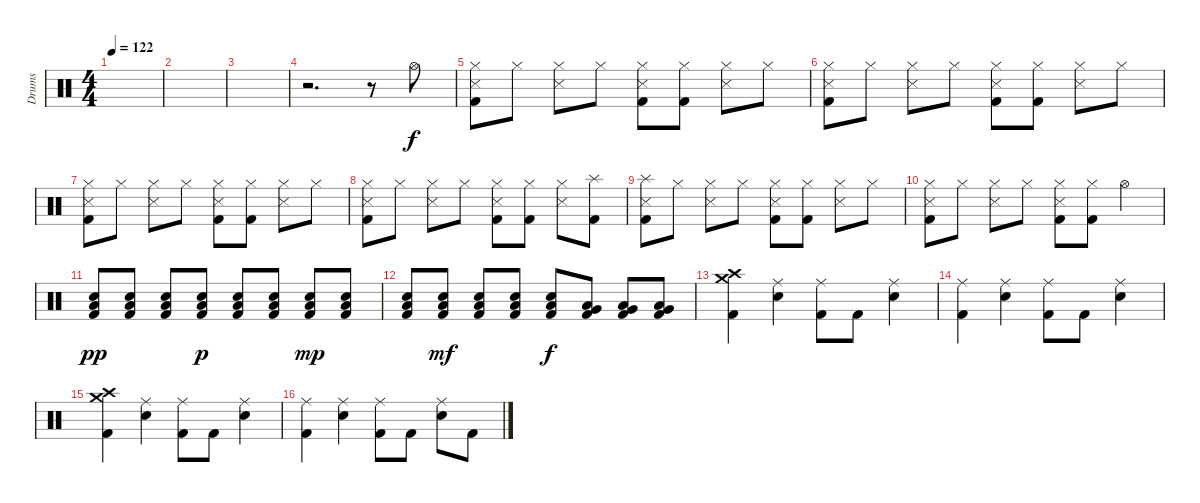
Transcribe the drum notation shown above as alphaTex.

\track ("Drums" "Drums") {instrument percussion}
\staff {score}
\articulation defaults
\ts (4 4)
\tempo 122
\clef neutral
\ks c
|
|
|
r.2{d} r.8 "Hi-Hat (open)".8{dy f volume 14} |
("Hi-Hat (closed)" "Snare (side stick) 3" "Kick (hit) 2").8 "Hi-Hat (closed)".8 ("Hi-Hat (closed)" "Snare (side stick) 3").8 "Hi-Hat (closed)".8 ("Hi-Hat (closed)" "Snare (side stick) 3" "Kick (hit) 2").8 ("Hi-Hat (closed)" "Kick (hit) 2").8 ("Hi-Hat (closed)" "Snare (side stick) 3").8 "Hi-Hat (closed)".8 |
("Hi-Hat (closed)" "Snare (side stick) 3" "Kick (hit) 2").8 "Hi-Hat (closed)".8 ("Hi-Hat (closed)" "Snare (side stick) 3").8 "Hi-Hat (closed)".8 ("Hi-Hat (closed)" "Snare (side stick) 3" "Kick (hit) 2").8 ("Hi-Hat (closed)" "Kick (hit) 2").8 ("Hi-Hat (closed)" "Snare (side stick) 3").8 "Hi-Hat (closed)".8 |
("Hi-Hat (closed)" "Snare (side stick) 3" "Kick (hit) 2").8 "Hi-Hat (closed)".8 ("Hi-Hat (closed)" "Snare (side stick) 3").8 "Hi-Hat (closed)".8 ("Hi-Hat (closed)" "Snare (side stick) 3" "Kick (hit) 2").8 ("Hi-Hat (closed)" "Kick (hit) 2").8 ("Hi-Hat (closed)" "Snare (side stick) 3").8 "Hi-Hat (closed)".8 |
("Hi-Hat (closed)" "Snare (side stick) 3" "Kick (hit) 2").8 "Hi-Hat (closed)".8 ("Hi-Hat (closed)" "Snare (side stick) 3").8 "Hi-Hat (closed)".8 ("Hi-Hat (closed)" "Snare (side stick) 3" "Kick (hit) 2").8 ("Hi-Hat (closed)" "Kick (hit) 2").8 ("Hi-Hat (closed)" "Snare (side stick) 3").8 ("Splash (hit)" "Kick (hit) 2").8 |
("Splash (hit)" "Snare (side stick) 3" "Kick (hit) 2").8 "Hi-Hat (closed)".8 ("Hi-Hat (closed)" "Snare (side stick) 3").8 "Hi-Hat (closed)".8 ("Hi-Hat (closed)" "Snare (side stick) 3" "Kick (hit) 2").8 ("Hi-Hat (closed)" "Kick (hit) 2").8 ("Hi-Hat (closed)" "Snare (side stick) 3").8 "Hi-Hat (closed)".8 |
("Hi-Hat (closed)" "Snare (side stick) 3" "Kick (hit) 2").8 "Hi-Hat (closed)".8 ("Hi-Hat (closed)" "Snare (side stick) 3").8 "Hi-Hat (closed)".8 ("Hi-Hat (closed)" "Snare (side stick) 3" "Kick (hit) 2").8 ("Hi-Hat (closed)" "Kick (hit) 2").8 "Hi-Hat (open)".4 |
("Low Floor Tom (hit)" "Electric Snare (hit)" "Kick (hit) 2").8{dy pp volume 16} ("Low Floor Tom (hit)" "Electric Snare (hit)" "Kick (hit) 2").8 ("Low Floor Tom (hit)" "Electric Snare (hit)" "Kick (hit) 2").8 ("Low Floor Tom (hit)" "Electric Snare (hit)" "Kick (hit) 2").8{dy p} ("Low Floor Tom (hit)" "Electric Snare (hit)" "Kick (hit) 2").8 ("Low Floor Tom (hit)" "Electric Snare (hit)" "Kick (hit) 2").8 ("Low Floor Tom (hit)" "Electric Snare (hit)" "Kick (hit) 2").8{dy mp} ("Low Floor Tom (hit)" "Electric Snare (hit)" "Kick (hit) 2").8 |
("Low Floor Tom (hit)" "Electric Snare (hit)" "Kick (hit) 2").8 ("Low Floor Tom (hit)" "Electric Snare (hit)" "Kick (hit) 2").8{dy mf} ("Low Floor Tom (hit)" "Electric Snare (hit)" "Kick (hit) 2").8 ("Low Floor Tom (hit)" "Electric Snare (hit)" "Kick (hit) 2").8 ("Low Floor Tom (hit)" "Electric Snare (hit)" "Kick (hit) 2").8{dy f} ("Very Low Tom (hit)" "Low Tom (hit)" "Kick (hit) 2").8 ("Very Low Tom (hit)" "Low Tom (hit)" "Kick (hit) 2").8 ("Low Floor Tom (hit)" "Very Low Tom (hit)" "Kick (hit) 2").8 |
("Crash medium (hit)" "Crash high (hit)" "Kick (hit) 2").4 ("Ride (middle)" "Electric Snare (hit)").4 ("Ride (middle)" "Kick (hit) 2").8 "Kick (hit) 2".8 ("Ride (middle)" "Electric Snare (hit)").4 |
("Ride (middle)" "Kick (hit) 2").4 ("Ride (middle)" "Electric Snare (hit)").4 ("Ride (middle)" "Kick (hit) 2").8 "Kick (hit) 2".8 ("Ride (middle)" "Electric Snare (hit)").4 |
("Crash medium (hit)" "Crash high (hit)" "Kick (hit) 2").4 ("Ride (middle)" "Electric Snare (hit)").4 ("Ride (middle)" "Kick (hit) 2").8 "Kick (hit) 2".8 ("Ride (middle)" "Electric Snare (hit)").4 |
("Ride (middle)" "Kick (hit) 2").4 ("Ride (middle)" "Electric Snare (hit)").4 ("Ride (middle)" "Kick (hit) 2").8 "Kick (hit) 2".8 ("Ride (middle)" "Electric Snare (hit)").8 "Kick (hit) 2".8
